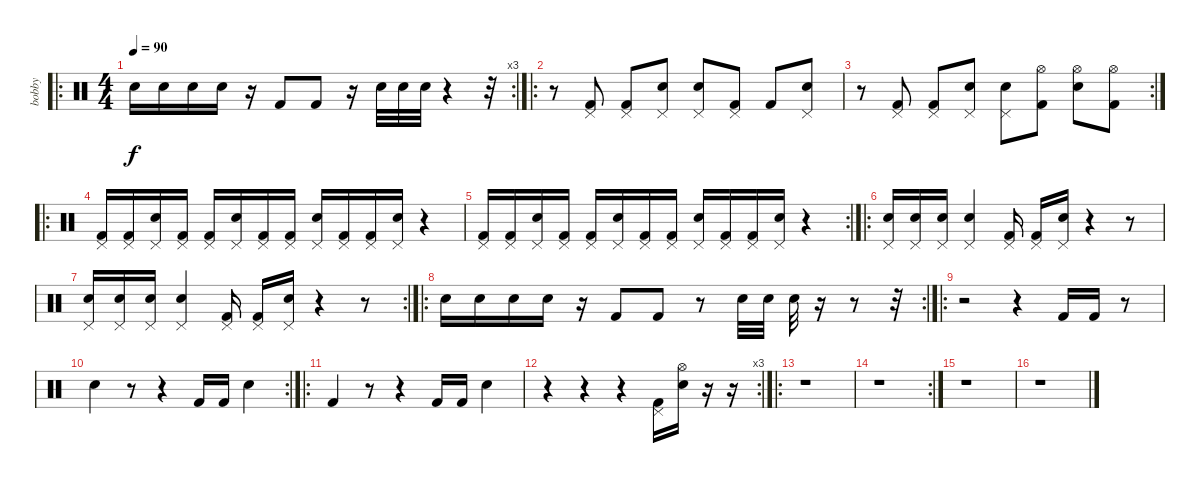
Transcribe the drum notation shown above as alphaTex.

\track ("bobby" "bobby") {instrument percussion}
\staff {score}
\articulation defaults
\ro
\rc 3
\ts (4 4)
\tempo 90
\clef neutral
\ks c "Snare (hit) 2".16{dy f} "Snare (hit) 2".16 "Snare (hit) 2".16 "Snare (hit) 2".16
r.16 "Kick (hit) 2".8 "Kick (hit) 2".8 r.16 "Snare (hit) 2".32 "Snare (hit) 2".32 "Snare (hit) 2".32 r.4 r.32 |
\ro
r.8 ("Pedal Hi-Hat (hit)" "Kick (hit) 2").8 ("Pedal Hi-Hat (hit)" "Kick (hit) 2").8 ("Pedal Hi-Hat (hit)" "Snare (hit) 2").8 ("Pedal Hi-Hat (hit)" "Snare (hit) 2").8 ("Pedal Hi-Hat (hit)" "Kick (hit) 2").8 "Kick (hit) 2".8 ("Pedal Hi-Hat (hit)" "Snare (hit) 2").8 |
\rc 2
r.8 ("Pedal Hi-Hat (hit)" "Kick (hit) 2").8 ("Pedal Hi-Hat (hit)" "Kick (hit) 2").8 ("Pedal Hi-Hat (hit)" "Snare (hit) 2").8 ("Pedal Hi-Hat (hit)" "Snare (hit) 2").8 ("Hi-Hat (open)" "Kick (hit) 2").8 ("Hi-Hat (open)" "Snare (hit) 2").8 ("Hi-Hat (open)" "Kick (hit) 2").8 |
\ro
("Pedal Hi-Hat (hit)" "Kick (hit) 2").16 ("Pedal Hi-Hat (hit)" "Kick (hit) 2").16 ("Pedal Hi-Hat (hit)" "Snare (hit) 2").16 ("Pedal Hi-Hat (hit)" "Kick (hit) 2").16 ("Pedal Hi-Hat (hit)" "Kick (hit) 2").16 ("Pedal Hi-Hat (hit)" "Snare (hit) 2").16 ("Pedal Hi-Hat (hit)" "Kick (hit) 2").16 ("Pedal Hi-Hat (hit)" "Kick (hit) 2").16 ("Pedal Hi-Hat (hit)" "Snare (hit) 2").16 ("Pedal Hi-Hat (hit)" "Kick (hit) 2").16 ("Pedal Hi-Hat (hit)" "Kick (hit) 2").16 ("Pedal Hi-Hat (hit)" "Snare (hit) 2").16 r.4 |
\rc 2
("Pedal Hi-Hat (hit)" "Kick (hit) 2").16 ("Pedal Hi-Hat (hit)" "Kick (hit) 2").16 ("Pedal Hi-Hat (hit)" "Snare (hit) 2").16 ("Pedal Hi-Hat (hit)" "Kick (hit) 2").16 ("Pedal Hi-Hat (hit)" "Kick (hit) 2").16 ("Pedal Hi-Hat (hit)" "Snare (hit) 2").16 ("Pedal Hi-Hat (hit)" "Kick (hit) 2").16 ("Pedal Hi-Hat (hit)" "Kick (hit) 2").16 ("Pedal Hi-Hat (hit)" "Snare (hit) 2").16 ("Pedal Hi-Hat (hit)" "Kick (hit) 2").16 ("Pedal Hi-Hat (hit)" "Kick (hit) 2").16 ("Pedal Hi-Hat (hit)" "Snare (hit) 2").16 r.4 |
\ro
("Pedal Hi-Hat (hit)" "Snare (hit) 2").16 ("Pedal Hi-Hat (hit)" "Snare (hit) 2").16 ("Pedal Hi-Hat (hit)" "Snare (hit) 2").16 ("Pedal Hi-Hat (hit)" "Snare (hit) 2").4 ("Pedal Hi-Hat (hit)" "Kick (hit) 2").16 ("Pedal Hi-Hat (hit)" "Kick (hit) 2").16 ("Pedal Hi-Hat (hit)" "Snare (hit) 2").16 r.4 r.8 |
\rc 2
("Pedal Hi-Hat (hit)" "Snare (hit) 2").16 ("Pedal Hi-Hat (hit)" "Snare (hit) 2").16 ("Pedal Hi-Hat (hit)" "Snare (hit) 2").16 ("Pedal Hi-Hat (hit)" "Snare (hit) 2").4 ("Pedal Hi-Hat (hit)" "Kick (hit) 2").16 ("Pedal Hi-Hat (hit)" "Kick (hit) 2").16 ("Pedal Hi-Hat (hit)" "Snare (hit) 2").16 r.4 r.8 |
\ro
\rc 2 "Snare (hit) 2".16 "Snare (hit) 2".16 "Snare (hit) 2".16 "Snare (hit) 2".16
r.16 "Kick (hit) 2".8 "Kick (hit) 2".8 r.8 "Snare (hit) 2".32 "Snare (hit) 2".32 "Snare (hit) 2".32 r.16 r.8 r.32 |
\ro
r.2 r.4 "Kick (hit) 2".16 "Kick (hit) 2".16 r.8 |
\rc 2 "Snare (hit) 2".4
r.8 r.4 "Kick (hit) 2".16 "Kick (hit) 2".16 "Snare (hit) 2".4 |
\ro "Kick (hit) 2".4
r.8 r.4 "Kick (hit) 2".16 "Kick (hit) 2".16 "Snare (hit) 2".4 |
\rc 3
r.4 r.4 r.4 ("Pedal Hi-Hat (hit)" "Kick (hit) 2").16 ("Hi-Hat (open)" "Snare (hit) 2").16 r.16 r.16 |
\ro
r.1 |
\rc 2
r.1 |
r.1 |
r.1
